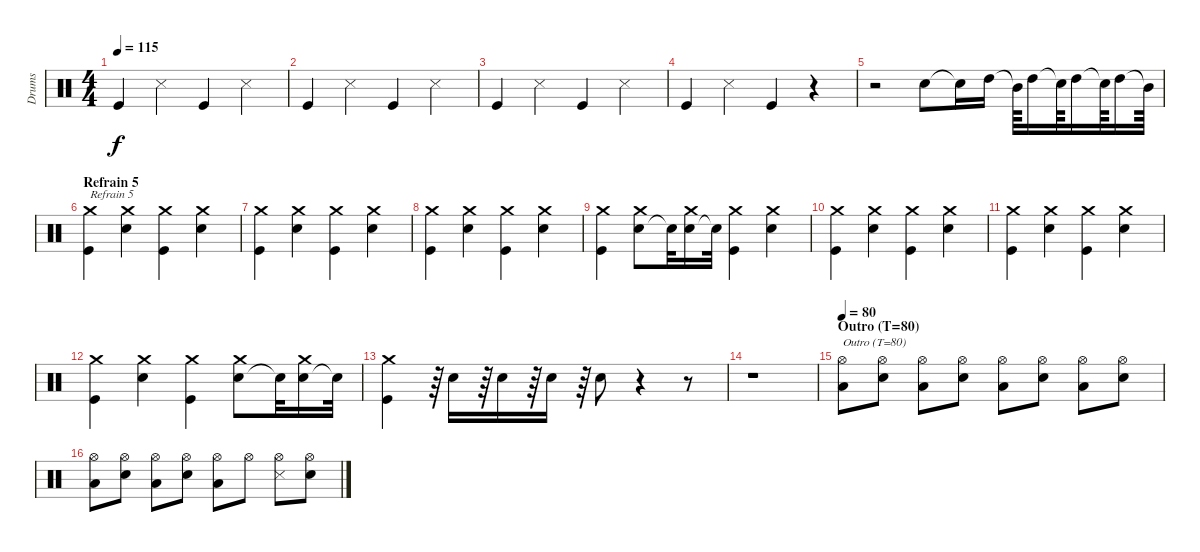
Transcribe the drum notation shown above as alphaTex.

\track ("Drums" "Drums") {instrument percussion}
\staff {score}
\articulation defaults
\ts (4 4)
\tempo 115
\clef neutral
\ks c "Kick (hit)".4{dy f} "Snare (side stick) 3".4 "Kick (hit)".4 "Snare (side stick) 3".4
|
"Kick (hit)".4 "Snare (side stick) 3".4 "Kick (hit)".4 "Snare (side stick) 3".4 |
"Kick (hit)".4 "Snare (side stick) 3".4 "Kick (hit)".4 "Snare (side stick) 3".4 |
"Kick (hit)".4 "Snare (side stick) 3".4 "Kick (hit)".4 r.4 |
r.2 "Snare (hit) 2".8 "Snare (hit)"{t}.16 "High Tom (hit)".16 "Mid Tom (hit)"{t}.64 "High Tom (hit)".16 "Snare (hit)"{t}.64 "High Tom (hit)".16 "Snare (hit)"{t}.64 "High Tom (hit)".16 "Mid Tom (hit)"{t}.64 |
\section ("" "Refrain 5")
("Kick (hit)" "Crash medium (hit)").4{txt "Refrain 5"} ("Snare (hit) 2" "Crash medium (hit)").4 ("Kick (hit)" "Crash medium (hit)").4 ("Snare (hit) 2" "Crash medium (hit)").4 |
("Kick (hit)" "Crash medium (hit)").4 ("Snare (hit) 2" "Crash medium (hit)").4 ("Kick (hit)" "Crash medium (hit)").4 ("Snare (hit) 2" "Crash medium (hit)").4 |
("Kick (hit)" "Crash medium (hit)").4 ("Snare (hit) 2" "Crash medium (hit)").4 ("Kick (hit)" "Crash medium (hit)").4 ("Snare (hit) 2" "Crash medium (hit)").4 |
("Kick (hit)" "Crash medium (hit)").4 ("Snare (hit) 2" "Crash medium (hit)").8 "Snare (hit)"{t}.32 ("Snare (hit) 2" "Crash medium (hit)").16 "Snare (hit)"{t}.32 ("Kick (hit)" "Crash medium (hit)").4 ("Snare (hit) 2" "Crash medium (hit)").4 |
("Kick (hit)" "Crash medium (hit)").4 ("Snare (hit) 2" "Crash medium (hit)").4 ("Kick (hit)" "Crash medium (hit)").4 ("Snare (hit) 2" "Crash medium (hit)").4 |
("Kick (hit)" "Crash medium (hit)").4 ("Snare (hit) 2" "Crash medium (hit)").4 ("Kick (hit)" "Crash medium (hit)").4 ("Snare (hit) 2" "Crash medium (hit)").4 |
("Kick (hit)" "Crash medium (hit)").4 ("Snare (hit) 2" "Crash medium (hit)").4 ("Kick (hit)" "Crash medium (hit)").4 ("Snare (hit) 2" "Crash medium (hit)").8 "Snare (hit)"{t}.32 ("Snare (hit) 2" "Crash medium (hit)").16 "Snare (hit) 2"{t}.32 |
("Kick (hit)" "Crash medium (hit)").4 r.64 "Snare (hit) 2".16 r.64 "Snare (hit) 2".16 r.64 "Snare (hit) 2".16 r.64 "Snare (hit) 2".8 r.4 r.8 |
r.1 |
\section ("" "Outro (T=80)")
\tempo 80
("Low Floor Tom (hit)" "Hi-Hat (open)").8{txt "Outro (T=80)"} ("Snare (hit) 2" "Hi-Hat (open)").8 ("Low Floor Tom (hit)" "Hi-Hat (open)").8 ("Snare (hit) 2" "Hi-Hat (open)").8 ("Low Floor Tom (hit)" "Hi-Hat (open)").8 ("Snare (hit) 2" "Hi-Hat (open)").8 ("Low Floor Tom (hit)" "Hi-Hat (open)").8 ("Snare (hit) 2" "Hi-Hat (open)").8 |
("Low Floor Tom (hit)" "Hi-Hat (open)").8 ("Snare (hit) 2" "Hi-Hat (open)").8 ("Low Floor Tom (hit)" "Hi-Hat (open)").8 ("Snare (hit) 2" "Hi-Hat (open)").8 ("Low Floor Tom (hit)" "Hi-Hat (open)").8 "Hi-Hat (open)".8 ("Snare (side stick) 3" "Hi-Hat (open)").8 ("Snare (hit) 2" "Hi-Hat (open)").8
